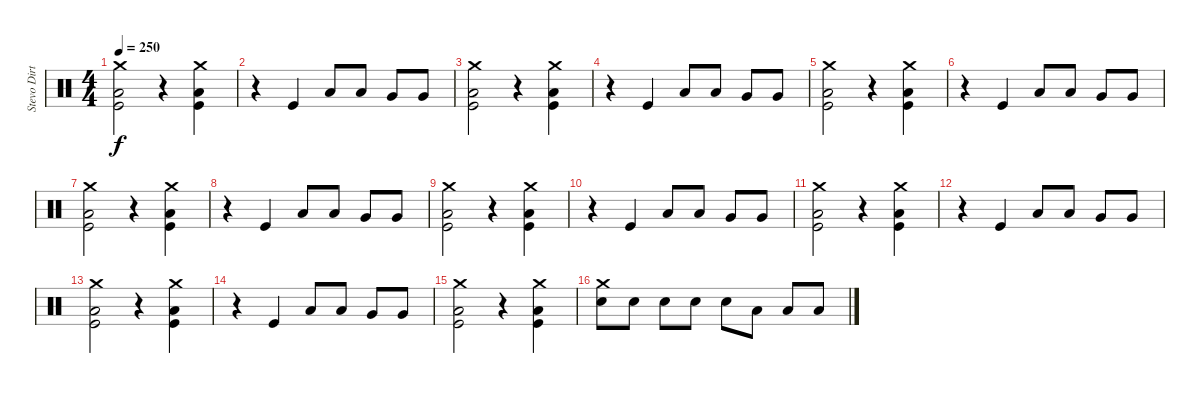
\track ("Stevo Dirty Poo" "Stevo Dirt") {instrument percussion}
\staff {score}
\articulation defaults
\ts (4 4)
\tempo 250
\clef neutral
\ks c
("Crash medium (hit)" "Low Floor Tom (hit)" "Kick (hit)").2{dy f} r.4 ("Crash medium (hit)" "Low Floor Tom (hit)" "Kick (hit)").4 |
r.4 "Kick (hit)".4 "Low Tom (hit)".8 "Low Tom (hit)".8 "Very Low Tom (hit)".8 "Very Low Tom (hit)".8 |
("Crash medium (hit)" "Low Floor Tom (hit)" "Kick (hit)").2 r.4 ("Crash medium (hit)" "Low Floor Tom (hit)" "Kick (hit)").4 |
r.4 "Kick (hit)".4 "Low Tom (hit)".8 "Low Tom (hit)".8 "Very Low Tom (hit)".8 "Very Low Tom (hit)".8 |
("Crash medium (hit)" "Low Floor Tom (hit)" "Kick (hit)").2 r.4 ("Crash medium (hit)" "Low Floor Tom (hit)" "Kick (hit)").4 |
r.4 "Kick (hit)".4 "Low Tom (hit)".8 "Low Tom (hit)".8 "Very Low Tom (hit)".8 "Very Low Tom (hit)".8 |
("Crash medium (hit)" "Low Floor Tom (hit)" "Kick (hit)").2 r.4 ("Crash medium (hit)" "Low Floor Tom (hit)" "Kick (hit)").4 |
r.4 "Kick (hit)".4 "Low Tom (hit)".8 "Low Tom (hit)".8 "Very Low Tom (hit)".8 "Very Low Tom (hit)".8 |
("Crash medium (hit)" "Low Floor Tom (hit)" "Kick (hit)").2 r.4 ("Crash medium (hit)" "Low Floor Tom (hit)" "Kick (hit)").4 |
r.4 "Kick (hit)".4 "Low Tom (hit)".8 "Low Tom (hit)".8 "Very Low Tom (hit)".8 "Very Low Tom (hit)".8 |
("Crash medium (hit)" "Low Floor Tom (hit)" "Kick (hit)").2 r.4 ("Crash medium (hit)" "Low Floor Tom (hit)" "Kick (hit)").4 |
r.4 "Kick (hit)".4 "Low Tom (hit)".8 "Low Tom (hit)".8 "Very Low Tom (hit)".8 "Very Low Tom (hit)".8 |
("Crash medium (hit)" "Low Floor Tom (hit)" "Kick (hit)").2 r.4 ("Crash medium (hit)" "Low Floor Tom (hit)" "Kick (hit)").4 |
r.4 "Kick (hit)".4 "Low Tom (hit)".8 "Low Tom (hit)".8 "Very Low Tom (hit)".8 "Very Low Tom (hit)".8 |
("Crash medium (hit)" "Low Floor Tom (hit)" "Kick (hit)").2 r.4 ("Crash medium (hit)" "Low Floor Tom (hit)" "Kick (hit)").4 |
("Crash medium (hit)" "Snare (hit) 2").8 "Snare (hit) 2".8 "Snare (hit) 2".8 "Snare (hit) 2".8 "Snare (hit) 2".8 "Low Tom (hit)".8 "Low Tom (hit)".8 "Low Tom (hit)".8
